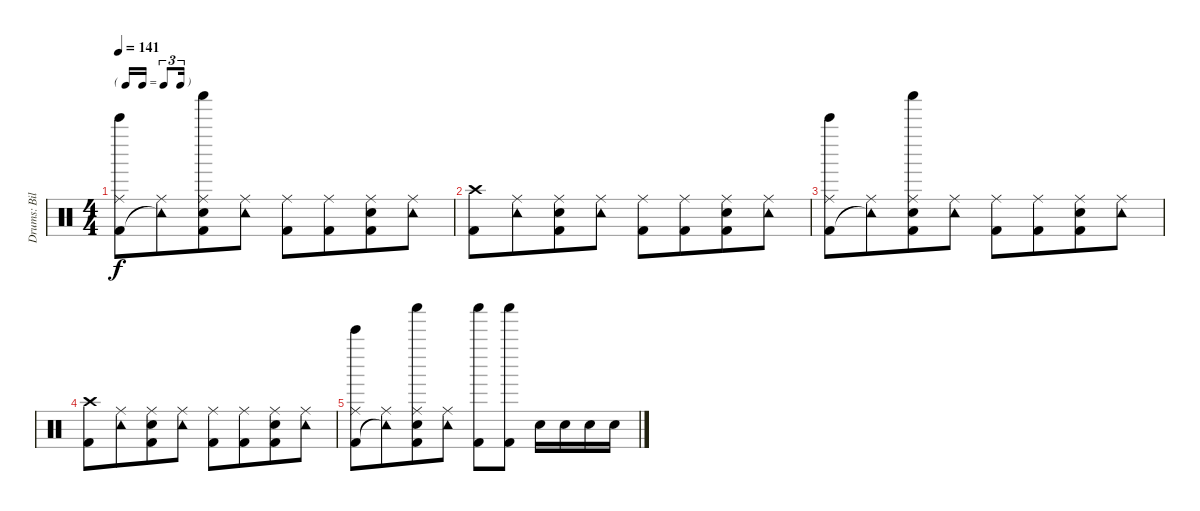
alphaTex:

\track ("Drums: Bill" "Drums: Bil") {instrument percussion}
\staff {score}
\articulation defaults
\ts (4 4)
\tf triplet16th
\tempo 141
\clef neutral
\ks c
("Ride (middle)" "Kick (hit) 2" "Bell Tree (hit)").8{dy f} ("Ride (middle)" "Tambourine (hit)"{t}).8{beam merge} ("Ride (middle)" "Electric Snare (hit)" "Kick (hit) 2" "Shaker (hit)").8 ("Ride (middle)" "Tambourine (hit)").8 ("Ride (middle)" "Kick (hit) 2").8 ("Ride (middle)" "Kick (hit) 2").8{beam merge} ("Ride (middle)" "Electric Snare (hit)" "Kick (hit) 2").8 ("Ride (middle)" "Tambourine (hit)").8 |
("Crash high (hit)" "Kick (hit) 2").8 ("Ride (middle)" "Tambourine (hit)").8{beam merge} ("Ride (middle)" "Electric Snare (hit)" "Kick (hit) 2").8 ("Ride (middle)" "Tambourine (hit)").8 ("Ride (middle)" "Kick (hit) 2").8 ("Ride (middle)" "Kick (hit) 2").8{beam merge} ("Ride (middle)" "Electric Snare (hit)" "Kick (hit) 2").8 ("Ride (middle)" "Tambourine (hit)").8 |
("Ride (middle)" "Kick (hit) 2" "Bell Tree (hit)").8 ("Ride (middle)" "Tambourine (hit)"{t}).8{beam merge} ("Ride (middle)" "Electric Snare (hit)" "Kick (hit) 2" "Shaker (hit)").8 ("Ride (middle)" "Tambourine (hit)").8 ("Ride (middle)" "Kick (hit) 2").8 ("Ride (middle)" "Kick (hit) 2").8{beam merge} ("Ride (middle)" "Electric Snare (hit)" "Kick (hit) 2").8 ("Ride (middle)" "Tambourine (hit)").8 |
("Crash high (hit)" "Kick (hit) 2").8 ("Ride (middle)" "Tambourine (hit)").8{beam merge} ("Ride (middle)" "Electric Snare (hit)" "Kick (hit) 2").8 ("Ride (middle)" "Tambourine (hit)").8 ("Ride (middle)" "Kick (hit) 2").8 ("Ride (middle)" "Kick (hit) 2").8{beam merge} ("Ride (middle)" "Electric Snare (hit)" "Kick (hit) 2").8 ("Ride (middle)" "Tambourine (hit)").8 |
("Ride (middle)" "Kick (hit) 2" "Bell Tree (hit)").8 ("Ride (middle)" "Tambourine (hit)"{t}).8{beam merge} ("Ride (middle)" "Electric Snare (hit)" "Kick (hit) 2" "Shaker (hit)").8 ("Ride (middle)" "Tambourine (hit)").8 ("Shaker (hit)" "Kick (hit) 2").8 ("Shaker (hit)" "Kick (hit) 2").8 "Electric Snare (hit)".16 "Electric Snare (hit)".16 "Electric Snare (hit)".16 "Electric Snare (hit)".16
